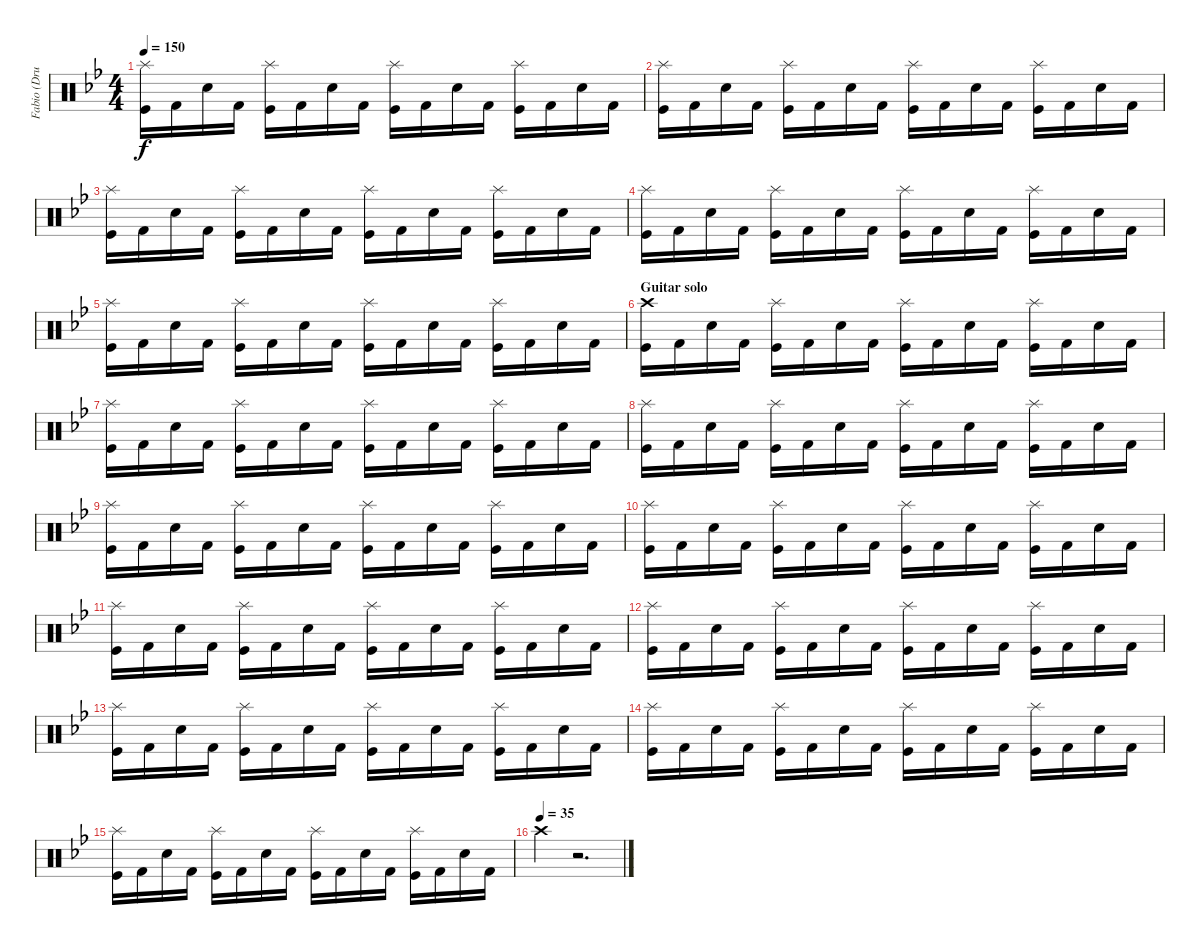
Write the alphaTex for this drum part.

\track ("Fabio (Drums)" "Fabio (Dru") {instrument percussion}
\staff {score}
\articulation defaults
\ts (4 4)
\tempo 150
\clef neutral
\ks gminor
("Splash (hit)" "Kick (hit)").16{dy f} "Kick (hit) 2".16 "Snare (hit) 2".16 "Kick (hit) 2".16 ("Splash (hit)" "Kick (hit)").16 "Kick (hit) 2".16 "Snare (hit) 2".16 "Kick (hit) 2".16 ("Splash (hit)" "Kick (hit)").16 "Kick (hit) 2".16 "Snare (hit) 2".16 "Kick (hit) 2".16 ("Splash (hit)" "Kick (hit)").16 "Kick (hit) 2".16 "Snare (hit) 2".16 "Kick (hit) 2".16 |
("Splash (hit)" "Kick (hit)").16 "Kick (hit) 2".16 "Snare (hit) 2".16 "Kick (hit) 2".16 ("Splash (hit)" "Kick (hit)").16 "Kick (hit) 2".16 "Snare (hit) 2".16 "Kick (hit) 2".16 ("Splash (hit)" "Kick (hit)").16 "Kick (hit) 2".16 "Snare (hit) 2".16 "Kick (hit) 2".16 ("Splash (hit)" "Kick (hit)").16 "Kick (hit) 2".16 "Snare (hit) 2".16 "Kick (hit) 2".16 |
("Splash (hit)" "Kick (hit)").16 "Kick (hit) 2".16 "Snare (hit) 2".16 "Kick (hit) 2".16 ("Splash (hit)" "Kick (hit)").16 "Kick (hit) 2".16 "Snare (hit) 2".16 "Kick (hit) 2".16 ("Splash (hit)" "Kick (hit)").16 "Kick (hit) 2".16 "Snare (hit) 2".16 "Kick (hit) 2".16 ("Splash (hit)" "Kick (hit)").16 "Kick (hit) 2".16 "Snare (hit) 2".16 "Kick (hit) 2".16 |
("Splash (hit)" "Kick (hit)").16 "Kick (hit) 2".16 "Snare (hit) 2".16 "Kick (hit) 2".16 ("Splash (hit)" "Kick (hit)").16 "Kick (hit) 2".16 "Snare (hit) 2".16 "Kick (hit) 2".16 ("Splash (hit)" "Kick (hit)").16 "Kick (hit) 2".16 "Snare (hit) 2".16 "Kick (hit) 2".16 ("Splash (hit)" "Kick (hit)").16 "Kick (hit) 2".16 "Snare (hit) 2".16 "Kick (hit) 2".16 |
("Splash (hit)" "Kick (hit)").16 "Kick (hit) 2".16 "Snare (hit) 2".16 "Kick (hit) 2".16 ("Splash (hit)" "Kick (hit)").16 "Kick (hit) 2".16 "Snare (hit) 2".16 "Kick (hit) 2".16 ("Splash (hit)" "Kick (hit)").16 "Kick (hit) 2".16 "Snare (hit) 2".16 "Kick (hit) 2".16 ("Splash (hit)" "Kick (hit)").16 "Kick (hit) 2".16 "Snare (hit) 2".16 "Kick (hit) 2".16 |
\section ("" "Guitar solo")
("Crash high (hit)" "Kick (hit)").16 "Kick (hit) 2".16 "Snare (hit) 2".16 "Kick (hit) 2".16 ("Splash (hit)" "Kick (hit)").16 "Kick (hit) 2".16 "Snare (hit) 2".16 "Kick (hit) 2".16 ("Splash (hit)" "Kick (hit)").16 "Kick (hit) 2".16 "Snare (hit) 2".16 "Kick (hit) 2".16 ("Splash (hit)" "Kick (hit)").16 "Kick (hit) 2".16 "Snare (hit) 2".16 "Kick (hit) 2".16 |
("Splash (hit)" "Kick (hit)").16 "Kick (hit) 2".16 "Snare (hit) 2".16 "Kick (hit) 2".16 ("Splash (hit)" "Kick (hit)").16 "Kick (hit) 2".16 "Snare (hit) 2".16 "Kick (hit) 2".16 ("Splash (hit)" "Kick (hit)").16 "Kick (hit) 2".16 "Snare (hit) 2".16 "Kick (hit) 2".16 ("Splash (hit)" "Kick (hit)").16 "Kick (hit) 2".16 "Snare (hit) 2".16 "Kick (hit) 2".16 |
("Splash (hit)" "Kick (hit)").16 "Kick (hit) 2".16 "Snare (hit) 2".16 "Kick (hit) 2".16 ("Splash (hit)" "Kick (hit)").16 "Kick (hit) 2".16 "Snare (hit) 2".16 "Kick (hit) 2".16 ("Splash (hit)" "Kick (hit)").16 "Kick (hit) 2".16 "Snare (hit) 2".16 "Kick (hit) 2".16 ("Splash (hit)" "Kick (hit)").16 "Kick (hit) 2".16 "Snare (hit) 2".16 "Kick (hit) 2".16 |
("Splash (hit)" "Kick (hit)").16 "Kick (hit) 2".16 "Snare (hit) 2".16 "Kick (hit) 2".16 ("Splash (hit)" "Kick (hit)").16 "Kick (hit) 2".16 "Snare (hit) 2".16 "Kick (hit) 2".16 ("Splash (hit)" "Kick (hit)").16 "Kick (hit) 2".16 "Snare (hit) 2".16 "Kick (hit) 2".16 ("Splash (hit)" "Kick (hit)").16 "Kick (hit) 2".16 "Snare (hit) 2".16 "Kick (hit) 2".16 |
("Splash (hit)" "Kick (hit)").16 "Kick (hit) 2".16 "Snare (hit) 2".16 "Kick (hit) 2".16 ("Splash (hit)" "Kick (hit)").16 "Kick (hit) 2".16 "Snare (hit) 2".16 "Kick (hit) 2".16 ("Splash (hit)" "Kick (hit)").16 "Kick (hit) 2".16 "Snare (hit) 2".16 "Kick (hit) 2".16 ("Splash (hit)" "Kick (hit)").16 "Kick (hit) 2".16 "Snare (hit) 2".16 "Kick (hit) 2".16 |
("Splash (hit)" "Kick (hit)").16 "Kick (hit) 2".16 "Snare (hit) 2".16 "Kick (hit) 2".16 ("Splash (hit)" "Kick (hit)").16 "Kick (hit) 2".16 "Snare (hit) 2".16 "Kick (hit) 2".16 ("Splash (hit)" "Kick (hit)").16 "Kick (hit) 2".16 "Snare (hit) 2".16 "Kick (hit) 2".16 ("Splash (hit)" "Kick (hit)").16 "Kick (hit) 2".16 "Snare (hit) 2".16 "Kick (hit) 2".16 |
("Splash (hit)" "Kick (hit)").16 "Kick (hit) 2".16 "Snare (hit) 2".16 "Kick (hit) 2".16 ("Splash (hit)" "Kick (hit)").16 "Kick (hit) 2".16 "Snare (hit) 2".16 "Kick (hit) 2".16 ("Splash (hit)" "Kick (hit)").16 "Kick (hit) 2".16 "Snare (hit) 2".16 "Kick (hit) 2".16 ("Splash (hit)" "Kick (hit)").16 "Kick (hit) 2".16 "Snare (hit) 2".16 "Kick (hit) 2".16 |
("Splash (hit)" "Kick (hit)").16 "Kick (hit) 2".16 "Snare (hit) 2".16 "Kick (hit) 2".16 ("Splash (hit)" "Kick (hit)").16 "Kick (hit) 2".16 "Snare (hit) 2".16 "Kick (hit) 2".16 ("Splash (hit)" "Kick (hit)").16 "Kick (hit) 2".16 "Snare (hit) 2".16 "Kick (hit) 2".16 ("Splash (hit)" "Kick (hit)").16 "Kick (hit) 2".16 "Snare (hit) 2".16 "Kick (hit) 2".16 |
("Splash (hit)" "Kick (hit)").16 "Kick (hit) 2".16 "Snare (hit) 2".16 "Kick (hit) 2".16 ("Splash (hit)" "Kick (hit)").16 "Kick (hit) 2".16 "Snare (hit) 2".16 "Kick (hit) 2".16 ("Splash (hit)" "Kick (hit)").16 "Kick (hit) 2".16 "Snare (hit) 2".16 "Kick (hit) 2".16 ("Splash (hit)" "Kick (hit)").16 "Kick (hit) 2".16 "Snare (hit) 2".16 "Kick (hit) 2".16 |
("Splash (hit)" "Kick (hit)").16 "Kick (hit) 2".16 "Snare (hit) 2".16 "Kick (hit) 2".16 ("Splash (hit)" "Kick (hit)").16 "Kick (hit) 2".16 "Snare (hit) 2".16 "Kick (hit) 2".16 ("Splash (hit)" "Kick (hit)").16 "Kick (hit) 2".16 "Snare (hit) 2".16 "Kick (hit) 2".16 ("Splash (hit)" "Kick (hit)").16 "Kick (hit) 2".16 "Snare (hit) 2".16 "Kick (hit) 2".16 |
\tempo (35)
"Crash high (hit)".4 r.2{d}
